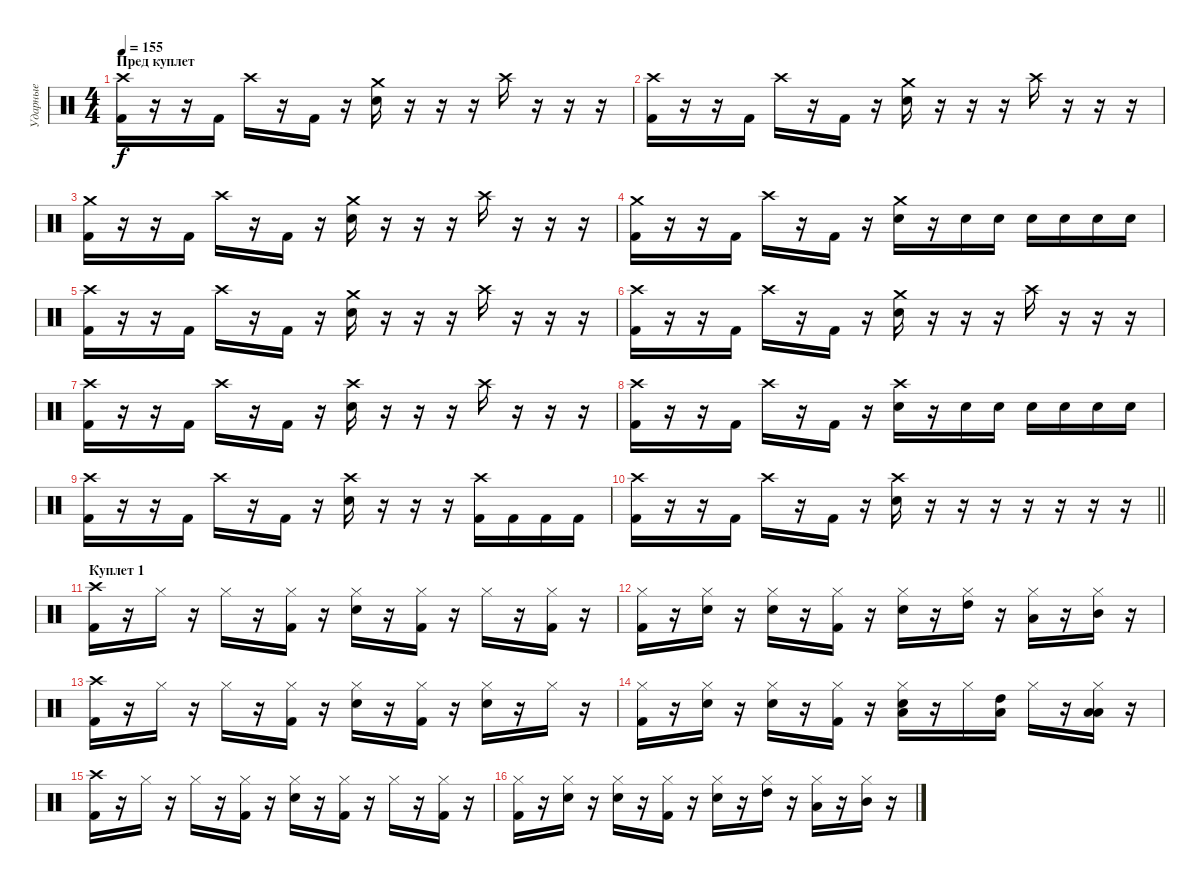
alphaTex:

\track ("Ударные" "Ударные") {instrument percussion}
\staff {score}
\articulation defaults
\ts (4 4)
\section ("" "Пред куплет")
\tempo 155
\clef neutral
\ks c
("Crash high (hit)" "Kick (hit) 2").16{dy f} r.16 r.16 "Kick (hit) 2".16 "Crash high (hit)".16 r.16 "Kick (hit) 2".16 r.16 ("Crash medium (hit)" "Snare (hit) 2").16 r.16 r.16 r.16 "Crash high (hit)".16 r.16 r.16 r.16 |
("Crash high (hit)" "Kick (hit) 2").16 r.16 r.16 "Kick (hit) 2".16 "Crash high (hit)".16 r.16 "Kick (hit) 2".16 r.16 ("Crash medium (hit)" "Snare (hit) 2").16 r.16 r.16 r.16 "Crash high (hit)".16 r.16 r.16 r.16 |
("Crash medium (hit)" "Kick (hit) 2").16 r.16 r.16 "Kick (hit) 2".16 "Crash high (hit)".16 r.16 "Kick (hit) 2".16 r.16 ("Crash medium (hit)" "Snare (hit) 2").16 r.16 r.16 r.16 "Crash high (hit)".16 r.16 r.16 r.16 |
("Crash medium (hit)" "Kick (hit) 2").16 r.16 r.16 "Kick (hit) 2".16 "Crash high (hit)".16 r.16 "Kick (hit) 2".16 r.16 ("Crash medium (hit)" "Snare (hit) 2").16 r.16 "Snare (hit) 2".16 "Snare (hit) 2".16 "Snare (hit) 2".16 "Snare (hit) 2".16 "Snare (hit) 2".16 "Snare (hit) 2".16 |
("Crash high (hit)" "Kick (hit) 2").16 r.16 r.16 "Kick (hit) 2".16 "Crash high (hit)".16 r.16 "Kick (hit) 2".16 r.16 ("Crash medium (hit)" "Snare (hit) 2").16 r.16 r.16 r.16 "Crash high (hit)".16 r.16 r.16 r.16 |
("Crash high (hit)" "Kick (hit) 2").16 r.16 r.16 "Kick (hit) 2".16 "Crash high (hit)".16 r.16 "Kick (hit) 2".16 r.16 ("Crash medium (hit)" "Snare (hit) 2").16 r.16 r.16 r.16 "Crash high (hit)".16 r.16 r.16 r.16 |
("Crash high (hit)" "Kick (hit) 2").16 r.16 r.16 "Kick (hit) 2".16 "Crash high (hit)".16 r.16 "Kick (hit) 2".16 r.16 ("Crash high (hit)" "Snare (hit) 2").16 r.16 r.16 r.16 "Crash high (hit)".16 r.16 r.16 r.16 |
("Crash high (hit)" "Kick (hit) 2").16 r.16 r.16 "Kick (hit) 2".16 "Crash high (hit)".16 r.16 "Kick (hit) 2".16 r.16 ("Crash high (hit)" "Snare (hit) 2").16 r.16 "Snare (hit) 2".16 "Snare (hit) 2".16 "Snare (hit) 2".16 "Snare (hit) 2".16 "Snare (hit) 2".16 "Snare (hit) 2".16 |
("Crash high (hit)" "Kick (hit) 2").16 r.16 r.16 "Kick (hit) 2".16 "Crash high (hit)".16 r.16 "Kick (hit) 2".16 r.16 ("Crash high (hit)" "Snare (hit) 2").16 r.16 r.16 r.16 ("Crash high (hit)" "Kick (hit) 2").16 "Kick (hit) 2".16 "Kick (hit) 2".16 "Kick (hit) 2".16 |
\barLineRight lightlight
("Crash high (hit)" "Kick (hit) 2").16 r.16 r.16 "Kick (hit) 2".16 "Crash high (hit)".16 r.16 "Kick (hit) 2".16 r.16 ("Crash high (hit)" "Snare (hit) 2").16 r.16 r.16 r.16 r.16 r.16 r.16 r.16 |
\section ("" "Куплет 1")
("Crash high (hit)" "Kick (hit) 2").16 r.16 "Hi-Hat (closed)".16 r.16 "Hi-Hat (closed)".16 r.16 ("Hi-Hat (closed)" "Kick (hit) 2").16 r.16 ("Hi-Hat (closed)" "Snare (hit) 2").16 r.16 ("Hi-Hat (closed)" "Kick (hit) 2").16 r.16 "Hi-Hat (closed)".16 r.16 ("Hi-Hat (closed)" "Kick (hit) 2").16 r.16 |
("Hi-Hat (closed)" "Kick (hit) 2").16 r.16 ("Hi-Hat (closed)" "Snare (hit) 2").16 r.16 ("Hi-Hat (closed)" "Snare (hit) 2").16 r.16 ("Hi-Hat (closed)" "Kick (hit) 2").16 r.16 ("Hi-Hat (closed)" "Snare (hit) 2").16 r.16 ("Hi-Hat (closed)" "High Tom (hit)").16 r.16 ("Hi-Hat (closed)" "Low Tom (hit)").16 r.16 ("Hi-Hat (closed)" "Mid Tom (hit)").16 r.16 |
("Crash high (hit)" "Kick (hit) 2").16 r.16 "Hi-Hat (closed)".16 r.16 "Hi-Hat (closed)".16 r.16 ("Hi-Hat (closed)" "Kick (hit) 2").16 r.16 ("Hi-Hat (closed)" "Snare (hit) 2").16 r.16 ("Hi-Hat (closed)" "Kick (hit) 2").16 r.16 ("Hi-Hat (closed)" "Snare (hit) 2").16 r.16 "Hi-Hat (closed)".16 r.16 |
("Hi-Hat (closed)" "Kick (hit) 2").16 r.16 ("Hi-Hat (closed)" "Snare (hit) 2").16 r.16 ("Hi-Hat (closed)" "Snare (hit) 2").16 r.16 ("Hi-Hat (closed)" "Kick (hit) 2").16 r.16 ("Hi-Hat (closed)" "Low Tom (hit)" "Snare (hit) 2").16 r.16 "Hi-Hat (closed)".16 ("Low Tom (hit)" "High Tom (hit)").16 "Hi-Hat (closed)".16 r.16 ("Hi-Hat (closed)" "Low Tom (hit)" "Low Tom (hit)").16 r.16 |
("Crash high (hit)" "Kick (hit) 2").16 r.16 "Hi-Hat (closed)".16 r.16 "Hi-Hat (closed)".16 r.16 ("Hi-Hat (closed)" "Kick (hit) 2").16 r.16 ("Hi-Hat (closed)" "Snare (hit) 2").16 r.16 ("Hi-Hat (closed)" "Kick (hit) 2").16 r.16 "Hi-Hat (closed)".16 r.16 ("Hi-Hat (closed)" "Kick (hit) 2").16 r.16 |
("Hi-Hat (closed)" "Kick (hit) 2").16 r.16 ("Hi-Hat (closed)" "Snare (hit) 2").16 r.16 ("Hi-Hat (closed)" "Snare (hit) 2").16 r.16 ("Hi-Hat (closed)" "Kick (hit) 2").16 r.16 ("Hi-Hat (closed)" "Snare (hit) 2").16 r.16 ("Hi-Hat (closed)" "High Tom (hit)").16 r.16 ("Hi-Hat (closed)" "Low Tom (hit)").16 r.16 ("Hi-Hat (closed)" "Mid Tom (hit)").16 r.16
